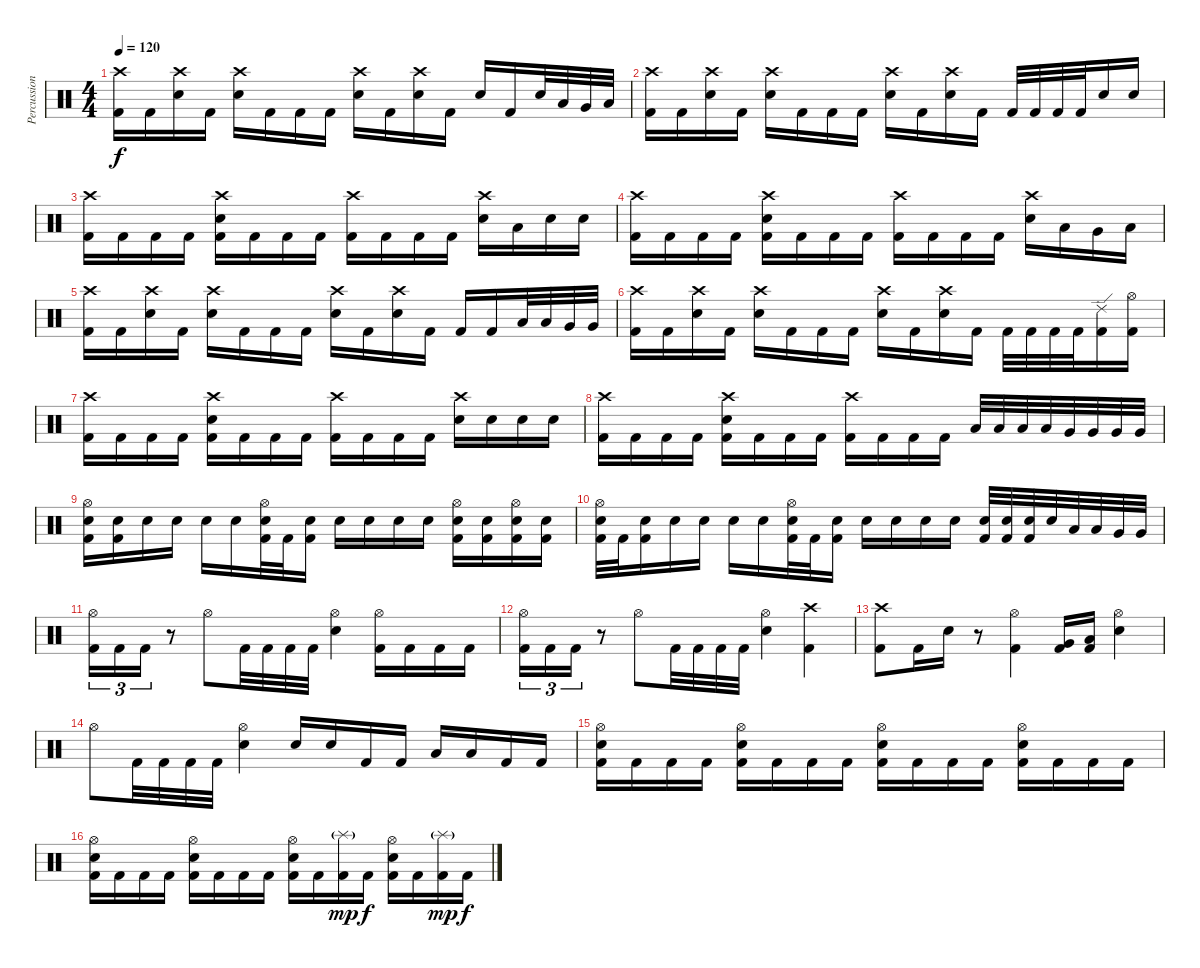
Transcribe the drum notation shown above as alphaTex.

\track ("Percussion" "Percussion") {instrument percussion}
\staff {score}
\articulation defaults
\ts (4 4)
\tempo 120
\clef neutral
\ks c
("Crash high (hit)" "Kick (hit) 2").16{dy f} "Kick (hit) 2".16 ("Crash high (hit)" "Electric Snare (hit)").16 "Kick (hit) 2".16 ("Crash high (hit)" "Electric Snare (hit)").16 "Kick (hit) 2".16 "Kick (hit) 2".16 "Kick (hit) 2".16 ("Crash high (hit)" "Electric Snare (hit)").16 "Kick (hit) 2".16 ("Crash high (hit)" "Electric Snare (hit)").16 "Kick (hit) 2".16 "Electric Snare (hit)".16 "Kick (hit) 2".16 "Electric Snare (hit)".32 "Low Tom (hit)".32 "Very Low Tom (hit)".32 "Low Floor Tom (hit)".32 |
("Crash high (hit)" "Kick (hit) 2").16 "Kick (hit) 2".16 ("Crash high (hit)" "Electric Snare (hit)").16 "Kick (hit) 2".16 ("Crash high (hit)" "Electric Snare (hit)").16 "Kick (hit) 2".16 "Kick (hit) 2".16 "Kick (hit) 2".16 ("Crash high (hit)" "Electric Snare (hit)").16 "Kick (hit) 2".16 ("Crash high (hit)" "Electric Snare (hit)").16 "Kick (hit) 2".16 "Kick (hit) 2".32 "Kick (hit) 2".32 "Kick (hit) 2".32 "Kick (hit) 2".32 "Electric Snare (hit)".16 "Electric Snare (hit)".16 |
("Crash high (hit)" "Kick (hit) 2").16 "Kick (hit) 2".16 "Kick (hit) 2".16 "Kick (hit) 2".16 ("Crash high (hit)" "Electric Snare (hit)" "Kick (hit) 2").16 "Kick (hit) 2".16 "Kick (hit) 2".16 "Kick (hit) 2".16 ("Crash high (hit)" "Kick (hit) 2").16 "Kick (hit) 2".16 "Kick (hit) 2".16 "Kick (hit) 2".16 ("Crash high (hit)" "Electric Snare (hit)").16 "Low Tom (hit)".16 "Electric Snare (hit)".16 "Electric Snare (hit)".16 |
("Crash high (hit)" "Kick (hit) 2").16 "Kick (hit) 2".16 "Kick (hit) 2".16 "Kick (hit) 2".16 ("Crash high (hit)" "Electric Snare (hit)" "Kick (hit) 2").16 "Kick (hit) 2".16 "Kick (hit) 2".16 "Kick (hit) 2".16 ("Crash high (hit)" "Kick (hit) 2").16 "Kick (hit) 2".16 "Kick (hit) 2".16 "Kick (hit) 2".16 ("Crash high (hit)" "Electric Snare (hit)").16 "Low Tom (hit)".16 "Very Low Tom (hit)".16 "Low Floor Tom (hit)".16 |
("Crash high (hit)" "Kick (hit) 2").16 "Kick (hit) 2".16 ("Crash high (hit)" "Electric Snare (hit)").16 "Kick (hit) 2".16 ("Crash high (hit)" "Electric Snare (hit)").16 "Kick (hit) 2".16 "Kick (hit) 2".16 "Kick (hit) 2".16 ("Crash high (hit)" "Electric Snare (hit)").16 "Kick (hit) 2".16 ("Crash high (hit)" "Electric Snare (hit)").16 "Kick (hit) 2".16 "Kick (hit) 2".16 "Kick (hit) 2".16 "Low Tom (hit)".32 "Low Tom (hit)".32 "Very Low Tom (hit)".32 "Very Low Tom (hit)".32 |
("Crash high (hit)" "Kick (hit) 2").16 "Kick (hit) 2".16 ("Crash high (hit)" "Electric Snare (hit)").16 "Kick (hit) 2".16 ("Crash high (hit)" "Electric Snare (hit)").16 "Kick (hit) 2".16 "Kick (hit) 2".16 "Kick (hit) 2".16 ("Crash high (hit)" "Electric Snare (hit)").16 "Kick (hit) 2".16 ("Crash high (hit)" "Electric Snare (hit)").16 "Kick (hit) 2".16 "Kick (hit) 2".32 "Kick (hit) 2".32 "Kick (hit) 2".32 "Kick (hit) 2".32 ("Ride (edge) 2" "Kick (hit) 2").16 ("Hi-Hat (open)" "Kick (hit) 2").16 |
("Crash high (hit)" "Kick (hit) 2").16 "Kick (hit) 2".16 "Kick (hit) 2".16 "Kick (hit) 2".16 ("Crash high (hit)" "Electric Snare (hit)" "Kick (hit) 2").16 "Kick (hit) 2".16 "Kick (hit) 2".16 "Kick (hit) 2".16 ("Crash high (hit)" "Kick (hit) 2").16 "Kick (hit) 2".16 "Kick (hit) 2".16 "Kick (hit) 2".16 ("Crash high (hit)" "Electric Snare (hit)").16 "Electric Snare (hit)".16 "Electric Snare (hit)".16 "Electric Snare (hit)".16 |
("Crash high (hit)" "Kick (hit) 2").16 "Kick (hit) 2".16 "Kick (hit) 2".16 "Kick (hit) 2".16 ("Crash high (hit)" "Electric Snare (hit)" "Kick (hit) 2").16 "Kick (hit) 2".16 "Kick (hit) 2".16 "Kick (hit) 2".16 ("Crash high (hit)" "Kick (hit) 2").16 "Kick (hit) 2".16 "Kick (hit) 2".16 "Kick (hit) 2".16 "Low Tom (hit)".32 "Low Tom (hit)".32 "Low Tom (hit)".32 "Low Tom (hit)".32 "Very Low Tom (hit)".32 "Very Low Tom (hit)".32 "Very Low Tom (hit)".32 "Very Low Tom (hit)".32 |
("Hi-Hat (open)" "Electric Snare (hit)" "Kick (hit) 2").16 ("Electric Snare (hit)" "Kick (hit) 2").16 "Electric Snare (hit)".16 "Electric Snare (hit)".16 "Electric Snare (hit)".16 "Electric Snare (hit)".16 ("Hi-Hat (open)" "Electric Snare (hit)" "Kick (hit) 2").32 "Kick (hit) 2".32 ("Electric Snare (hit)" "Kick (hit) 2").16 "Electric Snare (hit)".16 "Electric Snare (hit)".16 "Electric Snare (hit)".16 "Electric Snare (hit)".16 ("Hi-Hat (open)" "Electric Snare (hit)" "Kick (hit) 2").16 ("Electric Snare (hit)" "Kick (hit) 2").16 ("Hi-Hat (open)" "Electric Snare (hit)" "Kick (hit) 2").16 ("Electric Snare (hit)" "Kick (hit) 2").16 |
("Hi-Hat (open)" "Electric Snare (hit)" "Kick (hit) 2").32 "Kick (hit) 2".32 ("Electric Snare (hit)" "Kick (hit) 2").16 "Electric Snare (hit)".16 "Electric Snare (hit)".16 "Electric Snare (hit)".16 "Electric Snare (hit)".16 ("Hi-Hat (open)" "Electric Snare (hit)" "Kick (hit) 2").32 "Kick (hit) 2".32 ("Electric Snare (hit)" "Kick (hit) 2").16 "Electric Snare (hit)".16 "Electric Snare (hit)".16 "Electric Snare (hit)".16 "Electric Snare (hit)".16 ("Electric Snare (hit)" "Kick (hit) 2").32 ("Electric Snare (hit)" "Kick (hit) 2").32 ("Electric Snare (hit)" "Kick (hit) 2").32 "Electric Snare (hit)".32 "Low Tom (hit)".32 "Low Tom (hit)".32 "Very Low Tom (hit)".32 "Very Low Tom (hit)".32 |
("Hi-Hat (open)" "Kick (hit) 2").16{tu (3 2)} "Kick (hit) 2".16{tu (3 2)} "Kick (hit) 2".16{tu (3 2)} r.8 "Hi-Hat (open)".8 "Kick (hit) 2".32 "Kick (hit) 2".32 "Kick (hit) 2".32 "Kick (hit) 2".32 ("Hi-Hat (open)" "Electric Snare (hit)").4 ("Hi-Hat (open)" "Kick (hit) 2").16 "Kick (hit) 2".16 "Kick (hit) 2".16 "Kick (hit) 2".16 |
("Hi-Hat (open)" "Kick (hit) 2").16{tu (3 2)} "Kick (hit) 2".16{tu (3 2)} "Kick (hit) 2".16{tu (3 2)} r.8 "Hi-Hat (open)".8 "Kick (hit) 2".32 "Kick (hit) 2".32 "Kick (hit) 2".32 "Kick (hit) 2".32 ("Hi-Hat (open)" "Electric Snare (hit)").4 ("Crash high (hit)" "Kick (hit) 2").4 |
("Crash high (hit)" "Kick (hit) 2").8 "Kick (hit) 2".16 "Electric Snare (hit)".16 r.8 ("Hi-Hat (open)" "Kick (hit) 2").4 ("Very Low Tom (hit)" "Kick (hit) 2").16 ("Low Floor Tom (hit)" "Kick (hit) 2").16 ("Hi-Hat (open)" "Electric Snare (hit)").4 |
"Hi-Hat (open)".8 "Kick (hit) 2".32 "Kick (hit) 2".32 "Kick (hit) 2".32 "Kick (hit) 2".32 ("Hi-Hat (open)" "Electric Snare (hit)").4 "Electric Snare (hit)".16 "Electric Snare (hit)".16 "Kick (hit) 2".16 "Kick (hit) 2".16 "Low Tom (hit)".16 "Low Tom (hit)".16 "Kick (hit) 2".16 "Kick (hit) 2".16 |
("Hi-Hat (open)" "Electric Snare (hit)" "Kick (hit) 2").16 "Kick (hit) 2".16 "Kick (hit) 2".16 "Kick (hit) 2".16 ("Hi-Hat (open)" "Electric Snare (hit)" "Kick (hit) 2").16 "Kick (hit) 2".16 "Kick (hit) 2".16 "Kick (hit) 2".16 ("Hi-Hat (open)" "Electric Snare (hit)" "Kick (hit) 2").16 "Kick (hit) 2".16 "Kick (hit) 2".16 "Kick (hit) 2".16 ("Hi-Hat (open)" "Electric Snare (hit)" "Kick (hit) 2").16 "Kick (hit) 2".16 "Kick (hit) 2".16 "Kick (hit) 2".16 |
("Hi-Hat (open)" "Electric Snare (hit)" "Kick (hit) 2").16 "Kick (hit) 2".16 "Kick (hit) 2".16 "Kick (hit) 2".16 ("Hi-Hat (open)" "Electric Snare (hit)" "Kick (hit) 2").16 "Kick (hit) 2".16 "Kick (hit) 2".16 "Kick (hit) 2".16 ("Hi-Hat (open)" "Electric Snare (hit)" "Kick (hit) 2").16 "Kick (hit) 2".16 ("Splash (hit)"{g} "Kick (hit) 2").16{dy mp} "Kick (hit) 2".16{dy f} ("Hi-Hat (open)" "Electric Snare (hit)" "Kick (hit) 2").16 "Kick (hit) 2".16 ("Splash (hit)"{g} "Kick (hit) 2").16{dy mp} "Kick (hit) 2".16{dy f}
